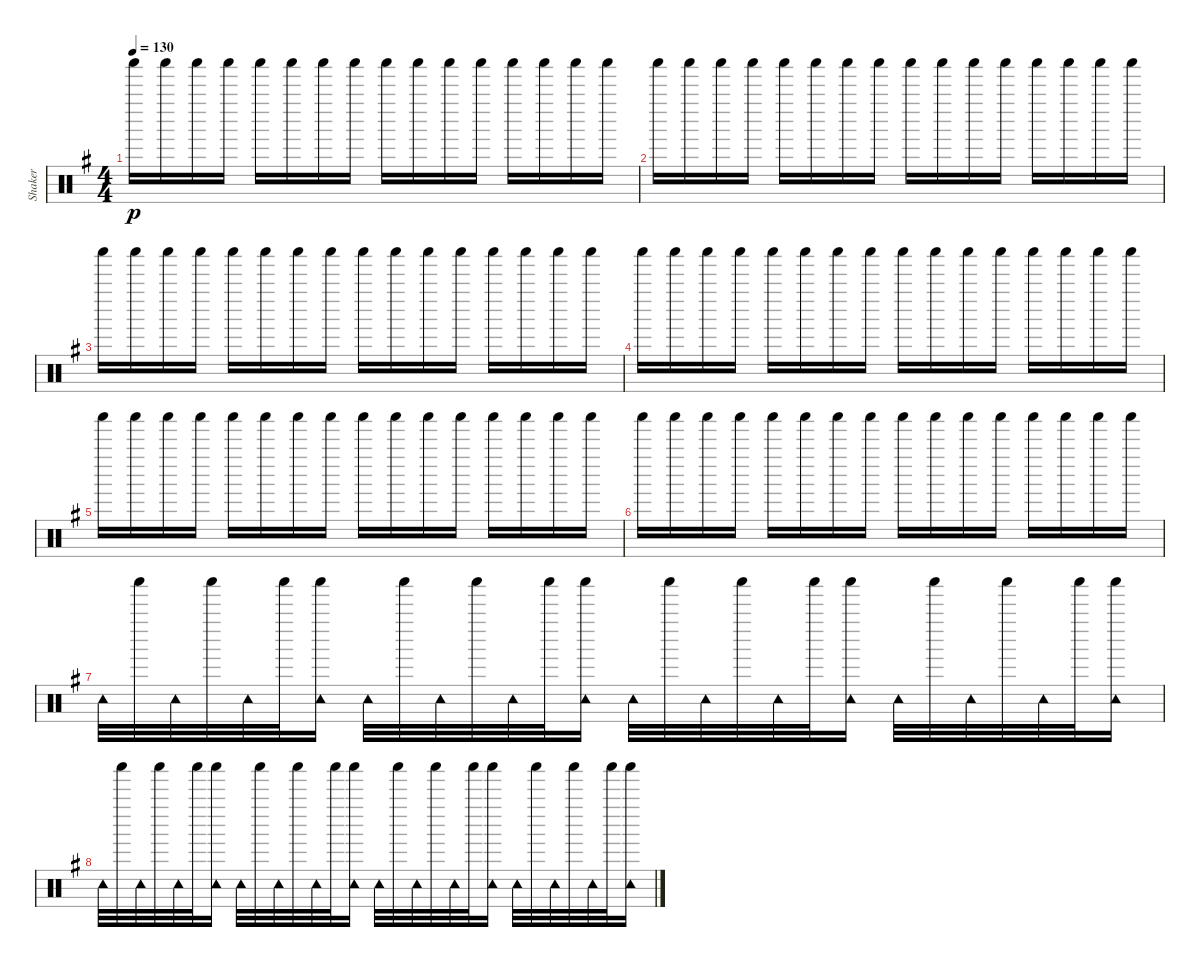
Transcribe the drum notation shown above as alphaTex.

\track ("Shaker" "Shaker") {instrument percussion}
\staff {score}
\articulation defaults
\ts (4 4)
\tempo 130
\clef neutral
\ks g "Shaker (hit)".16{dy p} "Shaker (hit)".16 "Shaker (hit)".16 "Shaker (hit)".16 "Shaker (hit)".16 "Shaker (hit)".16 "Shaker (hit)".16 "Shaker (hit)".16 "Shaker (hit)".16 "Shaker (hit)".16 "Shaker (hit)".16 "Shaker (hit)".16 "Shaker (hit)".16 "Shaker (hit)".16 "Shaker (hit)".16 "Shaker (hit)".16
|
"Shaker (hit)".16 "Shaker (hit)".16 "Shaker (hit)".16 "Shaker (hit)".16 "Shaker (hit)".16 "Shaker (hit)".16 "Shaker (hit)".16 "Shaker (hit)".16 "Shaker (hit)".16 "Shaker (hit)".16 "Shaker (hit)".16 "Shaker (hit)".16 "Shaker (hit)".16 "Shaker (hit)".16 "Shaker (hit)".16 "Shaker (hit)".16 |
"Shaker (hit)".16 "Shaker (hit)".16 "Shaker (hit)".16 "Shaker (hit)".16 "Shaker (hit)".16 "Shaker (hit)".16 "Shaker (hit)".16 "Shaker (hit)".16 "Shaker (hit)".16 "Shaker (hit)".16 "Shaker (hit)".16 "Shaker (hit)".16 "Shaker (hit)".16 "Shaker (hit)".16 "Shaker (hit)".16 "Shaker (hit)".16 |
"Shaker (hit)".16 "Shaker (hit)".16 "Shaker (hit)".16 "Shaker (hit)".16 "Shaker (hit)".16 "Shaker (hit)".16 "Shaker (hit)".16 "Shaker (hit)".16 "Shaker (hit)".16 "Shaker (hit)".16 "Shaker (hit)".16 "Shaker (hit)".16 "Shaker (hit)".16 "Shaker (hit)".16 "Shaker (hit)".16 "Shaker (hit)".16 |
"Shaker (hit)".16 "Shaker (hit)".16 "Shaker (hit)".16 "Shaker (hit)".16 "Shaker (hit)".16 "Shaker (hit)".16 "Shaker (hit)".16 "Shaker (hit)".16 "Shaker (hit)".16 "Shaker (hit)".16 "Shaker (hit)".16 "Shaker (hit)".16 "Shaker (hit)".16 "Shaker (hit)".16 "Shaker (hit)".16 "Shaker (hit)".16 |
"Shaker (hit)".16 "Shaker (hit)".16 "Shaker (hit)".16 "Shaker (hit)".16 "Shaker (hit)".16 "Shaker (hit)".16 "Shaker (hit)".16 "Shaker (hit)".16 "Shaker (hit)".16 "Shaker (hit)".16 "Shaker (hit)".16 "Shaker (hit)".16 "Shaker (hit)".16 "Shaker (hit)".16 "Shaker (hit)".16 "Shaker (hit)".16 |
"Tambourine (hit)".32 "Shaker (hit)".32 "Tambourine (hit)".32 "Shaker (hit)".32 "Tambourine (hit)".32 "Shaker (hit)".32 ("Tambourine (hit)" "Shaker (hit)").16 "Tambourine (hit)".32 "Shaker (hit)".32 "Tambourine (hit)".32 "Shaker (hit)".32 "Tambourine (hit)".32 "Shaker (hit)".32 ("Tambourine (hit)" "Shaker (hit)").16 "Tambourine (hit)".32 "Shaker (hit)".32 "Tambourine (hit)".32 "Shaker (hit)".32 "Tambourine (hit)".32 "Shaker (hit)".32 ("Tambourine (hit)" "Shaker (hit)").16 "Tambourine (hit)".32 "Shaker (hit)".32 "Tambourine (hit)".32 "Shaker (hit)".32 "Tambourine (hit)".32 "Shaker (hit)".32 ("Tambourine (hit)" "Shaker (hit)").16 |
"Tambourine (hit)".32 "Shaker (hit)".32 "Tambourine (hit)".32 "Shaker (hit)".32 "Tambourine (hit)".32 "Shaker (hit)".32 ("Tambourine (hit)" "Shaker (hit)").16 "Tambourine (hit)".32 "Shaker (hit)".32 "Tambourine (hit)".32 "Shaker (hit)".32 "Tambourine (hit)".32 "Shaker (hit)".32 ("Tambourine (hit)" "Shaker (hit)").16 "Tambourine (hit)".32 "Shaker (hit)".32 "Tambourine (hit)".32 "Shaker (hit)".32 "Tambourine (hit)".32 "Shaker (hit)".32 ("Tambourine (hit)" "Shaker (hit)").16 "Tambourine (hit)".32 "Shaker (hit)".32 "Tambourine (hit)".32 "Shaker (hit)".32 "Tambourine (hit)".32 "Shaker (hit)".32 ("Tambourine (hit)" "Shaker (hit)").16
